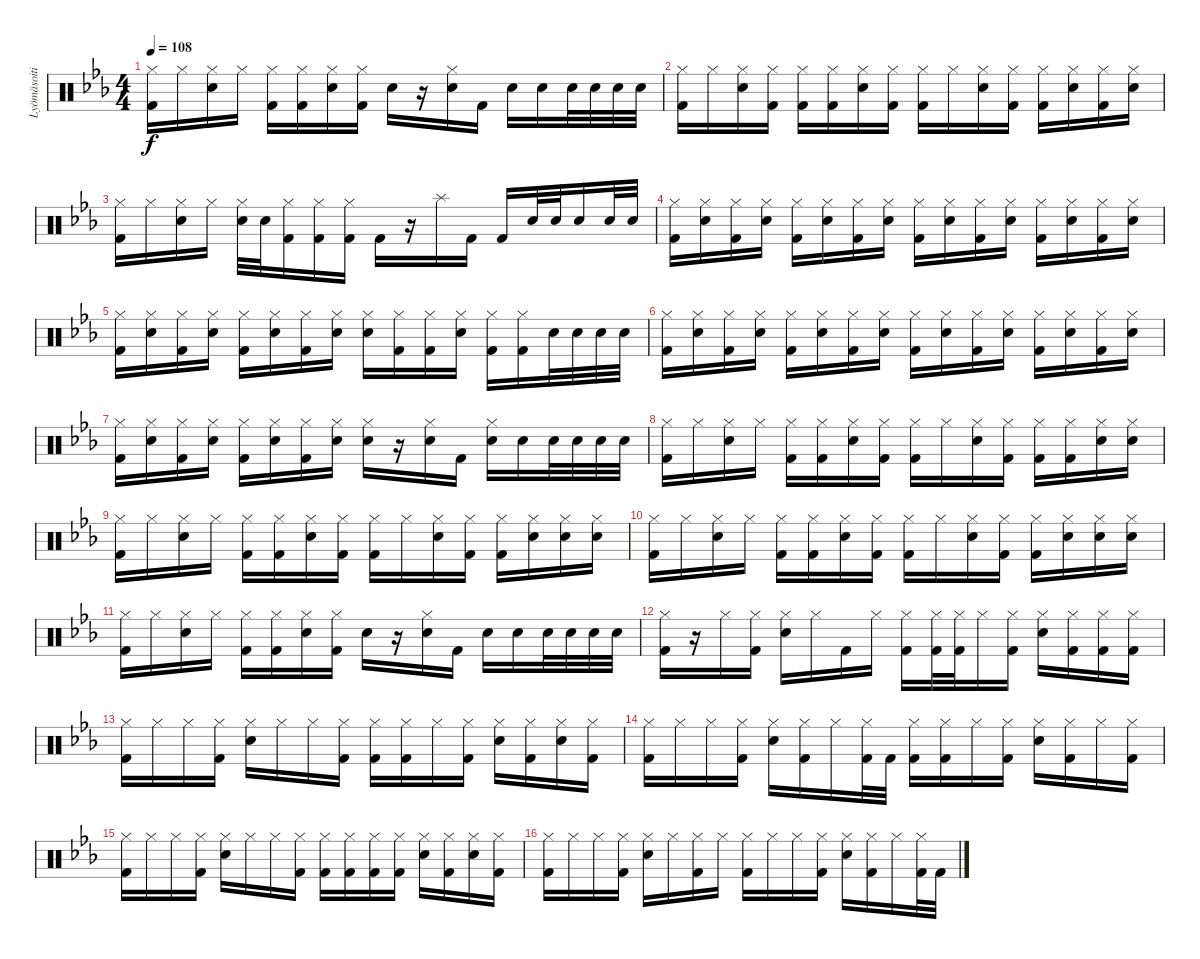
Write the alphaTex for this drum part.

\track ("Lyömäsoitin" "Lyömäsoiti") {instrument percussion}
\staff {score}
\articulation defaults
\ts (4 4)
\tempo 108
\clef neutral
\ks cminor
("Hi-Hat (closed)" "Kick (hit) 2").16{dy f} "Hi-Hat (closed)".16 ("Hi-Hat (closed)" "Electric Snare (hit)").16 "Hi-Hat (closed)".16 ("Hi-Hat (closed)" "Kick (hit) 2").16 ("Hi-Hat (closed)" "Kick (hit) 2").16 ("Hi-Hat (closed)" "Electric Snare (hit)").16 ("Hi-Hat (closed)" "Kick (hit) 2").16 "Electric Snare (hit)".16 r.16 ("Hi-Hat (closed)" "Electric Snare (hit)").16 "Kick (hit) 2".16 "Electric Snare (hit)".16 "Electric Snare (hit)".16 "Electric Snare (hit)".32 "Electric Snare (hit)".32 "Electric Snare (hit)".32 "Electric Snare (hit)".32 |
("Hi-Hat (closed)" "Kick (hit) 2").16 "Hi-Hat (closed)".16 ("Hi-Hat (closed)" "Electric Snare (hit)").16 ("Hi-Hat (closed)" "Kick (hit) 2").16 ("Hi-Hat (closed)" "Kick (hit) 2").16 ("Hi-Hat (closed)" "Kick (hit) 2").16 ("Hi-Hat (closed)" "Electric Snare (hit)").16 ("Hi-Hat (closed)" "Kick (hit) 2").16 ("Hi-Hat (closed)" "Kick (hit) 2").16 "Hi-Hat (closed)".16 ("Hi-Hat (closed)" "Electric Snare (hit)").16 ("Hi-Hat (closed)" "Kick (hit) 2").16 ("Hi-Hat (closed)" "Kick (hit) 2").16 ("Hi-Hat (closed)" "Electric Snare (hit)").16 ("Hi-Hat (closed)" "Kick (hit) 2").16 ("Hi-Hat (closed)" "Electric Snare (hit)").16 |
("Hi-Hat (closed)" "Kick (hit) 2").16 "Hi-Hat (closed)".16 ("Hi-Hat (closed)" "Electric Snare (hit)").16 "Hi-Hat (closed)".16 ("Hi-Hat (closed)" "Electric Snare (hit)").32 "Electric Snare (hit)".32 ("Hi-Hat (closed)" "Kick (hit) 2").16 ("Hi-Hat (closed)" "Kick (hit) 2").16 ("Hi-Hat (closed)" "Kick (hit) 2").16 "Kick (hit) 2".16 r.16 "Splash (hit)".16 "Kick (hit) 2".16 "Kick (hit) 2".16 "Electric Snare (hit)".32 "Electric Snare (hit)".32 "Electric Snare (hit)".16 "Electric Snare (hit)".32 "Electric Snare (hit)".32 |
("Hi-Hat (closed)" "Kick (hit) 2").16 ("Hi-Hat (closed)" "Electric Snare (hit)").16 ("Hi-Hat (closed)" "Kick (hit) 2").16 ("Hi-Hat (closed)" "Electric Snare (hit)").16 ("Hi-Hat (closed)" "Kick (hit) 2").16 ("Hi-Hat (closed)" "Electric Snare (hit)").16 ("Hi-Hat (closed)" "Kick (hit) 2").16 ("Hi-Hat (closed)" "Electric Snare (hit)").16 ("Hi-Hat (closed)" "Kick (hit) 2").16 ("Hi-Hat (closed)" "Electric Snare (hit)").16 ("Hi-Hat (closed)" "Kick (hit) 2").16 ("Hi-Hat (closed)" "Electric Snare (hit)").16 ("Hi-Hat (closed)" "Kick (hit) 2").16 ("Hi-Hat (closed)" "Electric Snare (hit)").16 ("Hi-Hat (closed)" "Kick (hit) 2").16 ("Hi-Hat (closed)" "Electric Snare (hit)").16 |
("Hi-Hat (closed)" "Kick (hit) 2").16 ("Hi-Hat (closed)" "Electric Snare (hit)").16 ("Hi-Hat (closed)" "Kick (hit) 2").16 ("Hi-Hat (closed)" "Electric Snare (hit)").16 ("Hi-Hat (closed)" "Kick (hit) 2").16 ("Hi-Hat (closed)" "Electric Snare (hit)").16 ("Hi-Hat (closed)" "Kick (hit) 2").16 ("Hi-Hat (closed)" "Electric Snare (hit)").16 ("Hi-Hat (closed)" "Electric Snare (hit)").16 ("Hi-Hat (closed)" "Kick (hit) 2").16 ("Hi-Hat (closed)" "Kick (hit) 2").16 ("Hi-Hat (closed)" "Electric Snare (hit)").16 ("Hi-Hat (closed)" "Kick (hit) 2").16 ("Hi-Hat (closed)" "Kick (hit) 2").16 "Electric Snare (hit)".32 "Electric Snare (hit)".32 "Electric Snare (hit)".32 "Electric Snare (hit)".32 |
("Hi-Hat (closed)" "Kick (hit) 2").16 ("Hi-Hat (closed)" "Electric Snare (hit)").16 ("Hi-Hat (closed)" "Kick (hit) 2").16 ("Hi-Hat (closed)" "Electric Snare (hit)").16 ("Hi-Hat (closed)" "Kick (hit) 2").16 ("Hi-Hat (closed)" "Electric Snare (hit)").16 ("Hi-Hat (closed)" "Kick (hit) 2").16 ("Hi-Hat (closed)" "Electric Snare (hit)").16 ("Hi-Hat (closed)" "Kick (hit) 2").16 ("Hi-Hat (closed)" "Electric Snare (hit)").16 ("Hi-Hat (closed)" "Kick (hit) 2").16 ("Hi-Hat (closed)" "Electric Snare (hit)").16 ("Hi-Hat (closed)" "Kick (hit) 2").16 ("Hi-Hat (closed)" "Electric Snare (hit)").16 ("Hi-Hat (closed)" "Kick (hit) 2").16 ("Hi-Hat (closed)" "Electric Snare (hit)").16 |
("Hi-Hat (closed)" "Kick (hit) 2").16 ("Hi-Hat (closed)" "Electric Snare (hit)").16 ("Hi-Hat (closed)" "Kick (hit) 2").16 ("Hi-Hat (closed)" "Electric Snare (hit)").16 ("Hi-Hat (closed)" "Kick (hit) 2").16 ("Hi-Hat (closed)" "Electric Snare (hit)").16 ("Hi-Hat (closed)" "Kick (hit) 2").16 ("Hi-Hat (closed)" "Electric Snare (hit)").16 ("Hi-Hat (closed)" "Electric Snare (hit)").16 r.16 ("Hi-Hat (closed)" "Electric Snare (hit)").16 "Kick (hit) 2".16 ("Hi-Hat (closed)" "Electric Snare (hit)").16 "Electric Snare (hit)".16 "Electric Snare (hit)".32 "Electric Snare (hit)".32 "Electric Snare (hit)".32 "Electric Snare (hit)".32 |
("Hi-Hat (closed)" "Kick (hit) 2").16 "Hi-Hat (closed)".16 ("Hi-Hat (closed)" "Electric Snare (hit)").16 "Hi-Hat (closed)".16 ("Hi-Hat (closed)" "Kick (hit) 2").16 ("Hi-Hat (closed)" "Kick (hit) 2").16 ("Hi-Hat (closed)" "Electric Snare (hit)").16 ("Hi-Hat (closed)" "Kick (hit) 2").16 ("Hi-Hat (closed)" "Kick (hit) 2").16 "Hi-Hat (closed)".16 ("Hi-Hat (closed)" "Electric Snare (hit)").16 ("Hi-Hat (closed)" "Kick (hit) 2").16 ("Hi-Hat (closed)" "Kick (hit) 2").16 ("Hi-Hat (closed)" "Kick (hit) 2").16 ("Hi-Hat (closed)" "Electric Snare (hit)").16 ("Hi-Hat (closed)" "Electric Snare (hit)").16 |
("Hi-Hat (closed)" "Kick (hit) 2").16 "Hi-Hat (closed)".16 ("Hi-Hat (closed)" "Electric Snare (hit)").16 "Hi-Hat (closed)".16 ("Hi-Hat (closed)" "Kick (hit) 2").16 ("Hi-Hat (closed)" "Kick (hit) 2").16 ("Hi-Hat (closed)" "Electric Snare (hit)").16 ("Hi-Hat (closed)" "Kick (hit) 2").16 ("Hi-Hat (closed)" "Kick (hit) 2").16 "Hi-Hat (closed)".16 ("Hi-Hat (closed)" "Electric Snare (hit)").16 ("Hi-Hat (closed)" "Kick (hit) 2").16 ("Hi-Hat (closed)" "Kick (hit) 2").16 ("Hi-Hat (closed)" "Electric Snare (hit)").16 ("Hi-Hat (closed)" "Electric Snare (hit)").16 ("Hi-Hat (closed)" "Electric Snare (hit)").16 |
("Hi-Hat (closed)" "Kick (hit) 2").16 "Hi-Hat (closed)".16 ("Hi-Hat (closed)" "Electric Snare (hit)").16 "Hi-Hat (closed)".16 ("Hi-Hat (closed)" "Kick (hit) 2").16 ("Hi-Hat (closed)" "Kick (hit) 2").16 ("Hi-Hat (closed)" "Electric Snare (hit)").16 ("Hi-Hat (closed)" "Kick (hit) 2").16 ("Hi-Hat (closed)" "Kick (hit) 2").16 "Hi-Hat (closed)".16 ("Hi-Hat (closed)" "Electric Snare (hit)").16 ("Hi-Hat (closed)" "Kick (hit) 2").16 ("Hi-Hat (closed)" "Kick (hit) 2").16 ("Hi-Hat (closed)" "Electric Snare (hit)").16 ("Hi-Hat (closed)" "Electric Snare (hit)").16 ("Hi-Hat (closed)" "Electric Snare (hit)").16 |
("Hi-Hat (closed)" "Kick (hit) 2").16 "Hi-Hat (closed)".16 ("Hi-Hat (closed)" "Electric Snare (hit)").16 "Hi-Hat (closed)".16 ("Hi-Hat (closed)" "Kick (hit) 2").16 ("Hi-Hat (closed)" "Kick (hit) 2").16 ("Hi-Hat (closed)" "Electric Snare (hit)").16 ("Hi-Hat (closed)" "Kick (hit) 2").16 "Electric Snare (hit)".16 r.16 ("Hi-Hat (closed)" "Electric Snare (hit)").16 "Kick (hit) 2".16 "Electric Snare (hit)".16 "Electric Snare (hit)".16 "Electric Snare (hit)".32 "Electric Snare (hit)".32 "Electric Snare (hit)".32 "Electric Snare (hit)".32 |
("Hi-Hat (closed)" "Kick (hit) 2").16 r.16 "Hi-Hat (closed)".16 ("Hi-Hat (closed)" "Kick (hit) 2").16 ("Hi-Hat (closed)" "Electric Snare (hit)").16 "Hi-Hat (closed)".16 "Kick (hit) 2".16 "Hi-Hat (closed)".16 ("Hi-Hat (closed)" "Kick (hit) 2").16 ("Hi-Hat (closed)" "Kick (hit) 2").32 ("Hi-Hat (closed)" "Kick (hit) 2").32 "Hi-Hat (closed)".16 ("Hi-Hat (closed)" "Kick (hit) 2").16 ("Hi-Hat (closed)" "Electric Snare (hit)").16 ("Hi-Hat (closed)" "Kick (hit) 2").16 ("Hi-Hat (closed)" "Kick (hit) 2").16 ("Hi-Hat (closed)" "Kick (hit) 2").16 |
("Hi-Hat (closed)" "Kick (hit) 2").16 "Hi-Hat (closed)".16 "Hi-Hat (closed)".16 ("Hi-Hat (closed)" "Kick (hit) 2").16 ("Hi-Hat (closed)" "Electric Snare (hit)").16 "Hi-Hat (closed)".16 "Hi-Hat (closed)".16 ("Hi-Hat (closed)" "Kick (hit) 2").16 ("Hi-Hat (closed)" "Kick (hit) 2").16 ("Hi-Hat (closed)" "Kick (hit) 2").16 "Hi-Hat (closed)".16 ("Hi-Hat (closed)" "Kick (hit) 2").16 ("Hi-Hat (closed)" "Electric Snare (hit)").16 ("Hi-Hat (closed)" "Kick (hit) 2").16 ("Hi-Hat (closed)" "Electric Snare (hit)").16 ("Hi-Hat (closed)" "Kick (hit) 2").16 |
("Hi-Hat (closed)" "Kick (hit) 2").16 "Hi-Hat (closed)".16 "Hi-Hat (closed)".16 ("Hi-Hat (closed)" "Kick (hit) 2").16 ("Hi-Hat (closed)" "Electric Snare (hit)").16 ("Hi-Hat (closed)" "Kick (hit) 2").16 "Hi-Hat (closed)".16 ("Hi-Hat (closed)" "Kick (hit) 2").32 "Kick (hit) 2".32 ("Hi-Hat (closed)" "Kick (hit) 2").16 ("Hi-Hat (closed)" "Kick (hit) 2").16 "Hi-Hat (closed)".16 ("Hi-Hat (closed)" "Kick (hit) 2").16 ("Hi-Hat (closed)" "Electric Snare (hit)").16 ("Hi-Hat (closed)" "Kick (hit) 2").16 "Hi-Hat (closed)".16 ("Hi-Hat (closed)" "Kick (hit) 2").16 |
("Hi-Hat (closed)" "Kick (hit) 2").16 "Hi-Hat (closed)".16 "Hi-Hat (closed)".16 ("Hi-Hat (closed)" "Kick (hit) 2").16 ("Hi-Hat (closed)" "Electric Snare (hit)").16 "Hi-Hat (closed)".16 "Hi-Hat (closed)".16 ("Hi-Hat (closed)" "Kick (hit) 2").16 ("Hi-Hat (closed)" "Kick (hit) 2").16 ("Hi-Hat (closed)" "Kick (hit) 2").16 ("Hi-Hat (closed)" "Kick (hit) 2").16 ("Hi-Hat (closed)" "Kick (hit) 2").16 ("Hi-Hat (closed)" "Electric Snare (hit)").16 ("Hi-Hat (closed)" "Kick (hit) 2").16 ("Hi-Hat (closed)" "Electric Snare (hit)").16 ("Hi-Hat (closed)" "Kick (hit) 2").16 |
("Hi-Hat (closed)" "Kick (hit) 2").16 "Hi-Hat (closed)".16 "Hi-Hat (closed)".16 ("Hi-Hat (closed)" "Kick (hit) 2").16 ("Hi-Hat (closed)" "Electric Snare (hit)").16 "Hi-Hat (closed)".16 ("Hi-Hat (closed)" "Kick (hit) 2").16 "Hi-Hat (closed)".16 ("Hi-Hat (closed)" "Kick (hit) 2").16 "Hi-Hat (closed)".16 "Hi-Hat (closed)".16 ("Hi-Hat (closed)" "Kick (hit) 2").16 ("Hi-Hat (closed)" "Electric Snare (hit)").16 ("Hi-Hat (closed)" "Kick (hit) 2").16 "Hi-Hat (closed)".16 ("Hi-Hat (closed)" "Kick (hit) 2").32 "Kick (hit) 2".32
